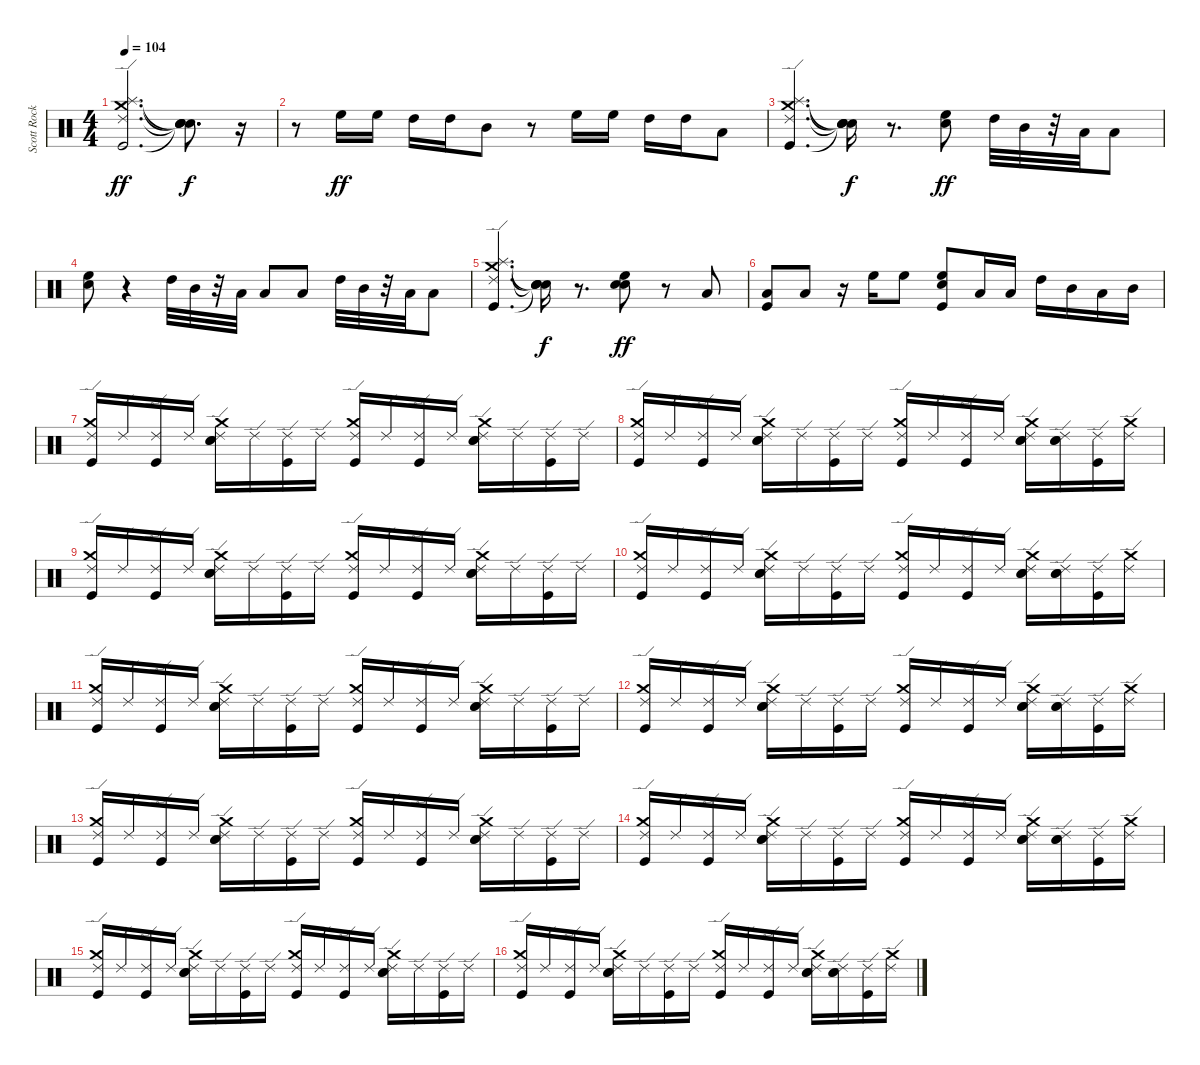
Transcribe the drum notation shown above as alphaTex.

\track ("Scott Rockenfield" "Scott Rock") {instrument percussion}
\staff {score}
\articulation defaults
\ts (4 4)
\tempo 104
\clef neutral
\ks c
("Kick (hit)" "Splash (hit)" "Crash medium (hit)" "Ride (edge) 2").2{d dy ff} ("Snare (hit)"{t} "Snare (hit)"{t} "Snare (hit)"{t} "Snare (hit)"{t}).8{d dy f} r.16 |
r.8 "High Floor Tom (hit)".16{dy ff} "High Floor Tom (hit)".16 "High Tom (hit)".16 "High Tom (hit)".16 "Mid Tom (hit)".8 r.8 "High Floor Tom (hit)".16 "High Floor Tom (hit)".16 "High Tom (hit)".16 "High Tom (hit)".16 "Low Tom (hit)".8 |
("Kick (hit)" "Splash (hit)" "Crash medium (hit)" "Ride (edge) 2").4{d} ("Snare (hit)"{t} "Snare (hit)"{t} "Snare (hit)"{t} "Snare (hit)"{t}).16{dy f} r.8{d} ("Snare (hit) 2" "High Floor Tom (hit)").8{dy ff} "High Tom (hit)".32 "Mid Tom (hit)".32 r.32 "Low Tom (hit)".32 "Low Tom (hit)".8 |
("Snare (hit) 2" "High Floor Tom (hit)").8 r.4 "High Tom (hit)".32 "Mid Tom (hit)".32 r.32 "Low Tom (hit)".32 "Low Tom (hit)".8 "Low Tom (hit)".8 "High Tom (hit)".32 "Mid Tom (hit)".32 r.32 "Low Tom (hit)".32 "Low Tom (hit)".8 |
("Kick (hit)" "Splash (hit)" "Crash medium (hit)" "Ride (edge) 2").4{d} ("Snare (hit)"{t} "Snare (hit)"{t} "Snare (hit)"{t} "Snare (hit)"{t}).16{dy f} r.8{d} ("Snare (hit) 2" "Electric Snare (hit)" "High Floor Tom (hit)").8{dy ff} r.8 "Low Tom (hit)".8 |
("Kick (hit)" "Low Tom (hit)").8 "Low Tom (hit)".8 r.16 "High Floor Tom (hit)".16 "High Floor Tom (hit)".8 ("Kick (hit)" "Electric Snare (hit)" "High Floor Tom (hit)").8 "Low Tom (hit)".16 "Low Tom (hit)".16 "High Tom (hit)".16 "Mid Tom (hit)".16 "Low Tom (hit)".16 "Mid Tom (hit)".16 |
("Kick (hit)" "Crash medium (hit)" "Ride (edge) 2").16 "Ride (edge) 2".16 ("Kick (hit)" "Ride (edge) 2").16 "Ride (edge) 2".16 ("Snare (hit) 2" "Electric Snare (hit)" "Crash medium (hit)" "Ride (edge) 2").16 "Ride (edge) 2".16 ("Kick (hit)" "Ride (edge) 2").16 "Ride (edge) 2".16 ("Kick (hit)" "Crash medium (hit)" "Ride (edge) 2").16 "Ride (edge) 2".16 ("Kick (hit)" "Ride (edge) 2").16 "Ride (edge) 2".16 ("Snare (hit) 2" "Electric Snare (hit)" "Crash medium (hit)" "Ride (edge) 2").16 "Ride (edge) 2".16 ("Kick (hit)" "Ride (edge) 2").16 "Ride (edge) 2".16 |
("Kick (hit)" "Crash medium (hit)" "Ride (edge) 2").16 "Ride (edge) 2".16 ("Kick (hit)" "Ride (edge) 2").16 "Ride (edge) 2".16 ("Snare (hit) 2" "Electric Snare (hit)" "Crash medium (hit)" "Ride (edge) 2").16 "Ride (edge) 2".16 ("Kick (hit)" "Ride (edge) 2").16 "Ride (edge) 2".16 ("Kick (hit)" "Crash medium (hit)" "Ride (edge) 2").16 "Ride (edge) 2".16 ("Kick (hit)" "Ride (edge) 2").16 "Ride (edge) 2".16 ("Snare (hit) 2" "Electric Snare (hit)" "Crash medium (hit)" "Ride (edge) 2").16 ("Snare (hit) 2" "Electric Snare (hit)" "Ride (edge) 2").16 ("Kick (hit)" "Ride (edge) 2").16 ("Crash medium (hit)" "Ride (edge) 2").16 |
("Kick (hit)" "Crash medium (hit)" "Ride (edge) 2").16 "Ride (edge) 2".16 ("Kick (hit)" "Ride (edge) 2").16 "Ride (edge) 2".16 ("Snare (hit) 2" "Electric Snare (hit)" "Crash medium (hit)" "Ride (edge) 2").16 "Ride (edge) 2".16 ("Kick (hit)" "Ride (edge) 2").16 "Ride (edge) 2".16 ("Kick (hit)" "Crash medium (hit)" "Ride (edge) 2").16 "Ride (edge) 2".16 ("Kick (hit)" "Ride (edge) 2").16 "Ride (edge) 2".16 ("Snare (hit) 2" "Electric Snare (hit)" "Crash medium (hit)" "Ride (edge) 2").16 "Ride (edge) 2".16 ("Kick (hit)" "Ride (edge) 2").16 "Ride (edge) 2".16 |
("Kick (hit)" "Crash medium (hit)" "Ride (edge) 2").16 "Ride (edge) 2".16 ("Kick (hit)" "Ride (edge) 2").16 "Ride (edge) 2".16 ("Snare (hit) 2" "Electric Snare (hit)" "Crash medium (hit)" "Ride (edge) 2").16 "Ride (edge) 2".16 ("Kick (hit)" "Ride (edge) 2").16 "Ride (edge) 2".16 ("Kick (hit)" "Crash medium (hit)" "Ride (edge) 2").16 "Ride (edge) 2".16 ("Kick (hit)" "Ride (edge) 2").16 "Ride (edge) 2".16 ("Snare (hit) 2" "Electric Snare (hit)" "Crash medium (hit)" "Ride (edge) 2").16 ("Snare (hit) 2" "Electric Snare (hit)" "Ride (edge) 2").16 ("Kick (hit)" "Ride (edge) 2").16 ("Crash medium (hit)" "Ride (edge) 2").16 |
("Kick (hit)" "Crash medium (hit)" "Ride (edge) 2").16 "Ride (edge) 2".16 ("Kick (hit)" "Ride (edge) 2").16 "Ride (edge) 2".16 ("Snare (hit) 2" "Electric Snare (hit)" "Crash medium (hit)" "Ride (edge) 2").16 "Ride (edge) 2".16 ("Kick (hit)" "Ride (edge) 2").16 "Ride (edge) 2".16 ("Kick (hit)" "Crash medium (hit)" "Ride (edge) 2").16 "Ride (edge) 2".16 ("Kick (hit)" "Ride (edge) 2").16 "Ride (edge) 2".16 ("Snare (hit) 2" "Electric Snare (hit)" "Crash medium (hit)" "Ride (edge) 2").16 "Ride (edge) 2".16 ("Kick (hit)" "Ride (edge) 2").16 "Ride (edge) 2".16 |
("Kick (hit)" "Crash medium (hit)" "Ride (edge) 2").16 "Ride (edge) 2".16 ("Kick (hit)" "Ride (edge) 2").16 "Ride (edge) 2".16 ("Snare (hit) 2" "Electric Snare (hit)" "Crash medium (hit)" "Ride (edge) 2").16 "Ride (edge) 2".16 ("Kick (hit)" "Ride (edge) 2").16 "Ride (edge) 2".16 ("Kick (hit)" "Crash medium (hit)" "Ride (edge) 2").16 "Ride (edge) 2".16 ("Kick (hit)" "Ride (edge) 2").16 "Ride (edge) 2".16 ("Snare (hit) 2" "Electric Snare (hit)" "Crash medium (hit)" "Ride (edge) 2").16 ("Snare (hit) 2" "Electric Snare (hit)" "Ride (edge) 2").16 ("Kick (hit)" "Ride (edge) 2").16 ("Crash medium (hit)" "Ride (edge) 2").16 |
("Kick (hit)" "Crash medium (hit)" "Ride (edge) 2").16 "Ride (edge) 2".16 ("Kick (hit)" "Ride (edge) 2").16 "Ride (edge) 2".16 ("Snare (hit) 2" "Electric Snare (hit)" "Crash medium (hit)" "Ride (edge) 2").16 "Ride (edge) 2".16 ("Kick (hit)" "Ride (edge) 2").16 "Ride (edge) 2".16 ("Kick (hit)" "Crash medium (hit)" "Ride (edge) 2").16 "Ride (edge) 2".16 ("Kick (hit)" "Ride (edge) 2").16 "Ride (edge) 2".16 ("Snare (hit) 2" "Electric Snare (hit)" "Crash medium (hit)" "Ride (edge) 2").16 "Ride (edge) 2".16 ("Kick (hit)" "Ride (edge) 2").16 "Ride (edge) 2".16 |
("Kick (hit)" "Crash medium (hit)" "Ride (edge) 2").16 "Ride (edge) 2".16 ("Kick (hit)" "Ride (edge) 2").16 "Ride (edge) 2".16 ("Snare (hit) 2" "Electric Snare (hit)" "Crash medium (hit)" "Ride (edge) 2").16 "Ride (edge) 2".16 ("Kick (hit)" "Ride (edge) 2").16 "Ride (edge) 2".16 ("Kick (hit)" "Crash medium (hit)" "Ride (edge) 2").16 "Ride (edge) 2".16 ("Kick (hit)" "Ride (edge) 2").16 "Ride (edge) 2".16 ("Snare (hit) 2" "Electric Snare (hit)" "Crash medium (hit)" "Ride (edge) 2").16 ("Snare (hit) 2" "Electric Snare (hit)" "Ride (edge) 2").16 ("Kick (hit)" "Ride (edge) 2").16 ("Crash medium (hit)" "Ride (edge) 2").16 |
("Kick (hit)" "Crash medium (hit)" "Ride (edge) 2").16 "Ride (edge) 2".16 ("Kick (hit)" "Ride (edge) 2").16 "Ride (edge) 2".16 ("Snare (hit) 2" "Electric Snare (hit)" "Crash medium (hit)" "Ride (edge) 2").16 "Ride (edge) 2".16 ("Kick (hit)" "Ride (edge) 2").16 "Ride (edge) 2".16 ("Kick (hit)" "Crash medium (hit)" "Ride (edge) 2").16 "Ride (edge) 2".16 ("Kick (hit)" "Ride (edge) 2").16 "Ride (edge) 2".16 ("Snare (hit) 2" "Electric Snare (hit)" "Crash medium (hit)" "Ride (edge) 2").16 "Ride (edge) 2".16 ("Kick (hit)" "Ride (edge) 2").16 "Ride (edge) 2".16 |
("Kick (hit)" "Crash medium (hit)" "Ride (edge) 2").16 "Ride (edge) 2".16 ("Kick (hit)" "Ride (edge) 2").16 "Ride (edge) 2".16 ("Snare (hit) 2" "Electric Snare (hit)" "Crash medium (hit)" "Ride (edge) 2").16 "Ride (edge) 2".16 ("Kick (hit)" "Ride (edge) 2").16 "Ride (edge) 2".16 ("Kick (hit)" "Crash medium (hit)" "Ride (edge) 2").16 "Ride (edge) 2".16 ("Kick (hit)" "Ride (edge) 2").16 "Ride (edge) 2".16 ("Snare (hit) 2" "Electric Snare (hit)" "Crash medium (hit)" "Ride (edge) 2").16 ("Snare (hit) 2" "Electric Snare (hit)" "Ride (edge) 2").16 ("Kick (hit)" "Ride (edge) 2").16 ("Crash medium (hit)" "Ride (edge) 2").16
